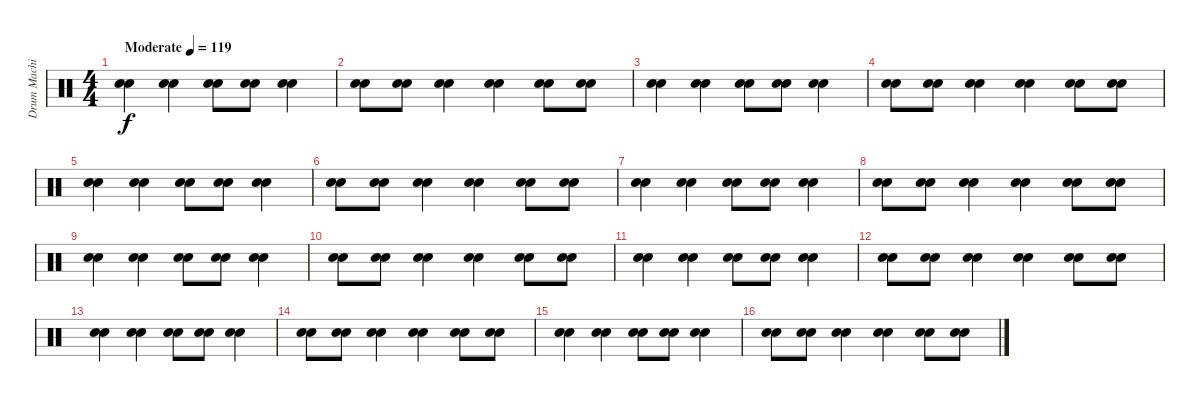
\track ("Drum Machine" "Drum Machi") {instrument percussion}
\staff {score}
\articulation defaults
\ts (4 4)
\tempo (119 "Moderate")
\clef neutral
\ks c
("Hand Clap (hit)" "Hand Clap (hit)").4{dy f} ("Hand Clap (hit)" "Hand Clap (hit)").4 ("Hand Clap (hit)" "Hand Clap (hit)").8 ("Hand Clap (hit)" "Hand Clap (hit)").8 ("Hand Clap (hit)" "Hand Clap (hit)").4 |
("Hand Clap (hit)" "Hand Clap (hit)").8 ("Hand Clap (hit)" "Hand Clap (hit)").8 ("Hand Clap (hit)" "Hand Clap (hit)").4 ("Hand Clap (hit)" "Hand Clap (hit)").4 ("Hand Clap (hit)" "Hand Clap (hit)").8 ("Hand Clap (hit)" "Hand Clap (hit)").8 |
("Hand Clap (hit)" "Hand Clap (hit)").4 ("Hand Clap (hit)" "Hand Clap (hit)").4 ("Hand Clap (hit)" "Hand Clap (hit)").8 ("Hand Clap (hit)" "Hand Clap (hit)").8 ("Hand Clap (hit)" "Hand Clap (hit)").4 |
("Hand Clap (hit)" "Hand Clap (hit)").8 ("Hand Clap (hit)" "Hand Clap (hit)").8 ("Hand Clap (hit)" "Hand Clap (hit)").4 ("Hand Clap (hit)" "Hand Clap (hit)").4 ("Hand Clap (hit)" "Hand Clap (hit)").8 ("Hand Clap (hit)" "Hand Clap (hit)").8 |
("Hand Clap (hit)" "Hand Clap (hit)").4 ("Hand Clap (hit)" "Hand Clap (hit)").4 ("Hand Clap (hit)" "Hand Clap (hit)").8 ("Hand Clap (hit)" "Hand Clap (hit)").8 ("Hand Clap (hit)" "Hand Clap (hit)").4 |
("Hand Clap (hit)" "Hand Clap (hit)").8 ("Hand Clap (hit)" "Hand Clap (hit)").8 ("Hand Clap (hit)" "Hand Clap (hit)").4 ("Hand Clap (hit)" "Hand Clap (hit)").4 ("Hand Clap (hit)" "Hand Clap (hit)").8 ("Hand Clap (hit)" "Hand Clap (hit)").8 |
("Hand Clap (hit)" "Hand Clap (hit)").4 ("Hand Clap (hit)" "Hand Clap (hit)").4 ("Hand Clap (hit)" "Hand Clap (hit)").8 ("Hand Clap (hit)" "Hand Clap (hit)").8 ("Hand Clap (hit)" "Hand Clap (hit)").4 |
("Hand Clap (hit)" "Hand Clap (hit)").8 ("Hand Clap (hit)" "Hand Clap (hit)").8 ("Hand Clap (hit)" "Hand Clap (hit)").4 ("Hand Clap (hit)" "Hand Clap (hit)").4 ("Hand Clap (hit)" "Hand Clap (hit)").8 ("Hand Clap (hit)" "Hand Clap (hit)").8 |
("Hand Clap (hit)" "Hand Clap (hit)").4 ("Hand Clap (hit)" "Hand Clap (hit)").4 ("Hand Clap (hit)" "Hand Clap (hit)").8 ("Hand Clap (hit)" "Hand Clap (hit)").8 ("Hand Clap (hit)" "Hand Clap (hit)").4 |
("Hand Clap (hit)" "Hand Clap (hit)").8 ("Hand Clap (hit)" "Hand Clap (hit)").8 ("Hand Clap (hit)" "Hand Clap (hit)").4 ("Hand Clap (hit)" "Hand Clap (hit)").4 ("Hand Clap (hit)" "Hand Clap (hit)").8 ("Hand Clap (hit)" "Hand Clap (hit)").8 |
("Hand Clap (hit)" "Hand Clap (hit)").4 ("Hand Clap (hit)" "Hand Clap (hit)").4 ("Hand Clap (hit)" "Hand Clap (hit)").8 ("Hand Clap (hit)" "Hand Clap (hit)").8 ("Hand Clap (hit)" "Hand Clap (hit)").4 |
("Hand Clap (hit)" "Hand Clap (hit)").8 ("Hand Clap (hit)" "Hand Clap (hit)").8 ("Hand Clap (hit)" "Hand Clap (hit)").4 ("Hand Clap (hit)" "Hand Clap (hit)").4 ("Hand Clap (hit)" "Hand Clap (hit)").8 ("Hand Clap (hit)" "Hand Clap (hit)").8 |
("Hand Clap (hit)" "Hand Clap (hit)").4 ("Hand Clap (hit)" "Hand Clap (hit)").4 ("Hand Clap (hit)" "Hand Clap (hit)").8 ("Hand Clap (hit)" "Hand Clap (hit)").8 ("Hand Clap (hit)" "Hand Clap (hit)").4 |
("Hand Clap (hit)" "Hand Clap (hit)").8 ("Hand Clap (hit)" "Hand Clap (hit)").8 ("Hand Clap (hit)" "Hand Clap (hit)").4 ("Hand Clap (hit)" "Hand Clap (hit)").4 ("Hand Clap (hit)" "Hand Clap (hit)").8 ("Hand Clap (hit)" "Hand Clap (hit)").8 |
("Hand Clap (hit)" "Hand Clap (hit)").4 ("Hand Clap (hit)" "Hand Clap (hit)").4 ("Hand Clap (hit)" "Hand Clap (hit)").8 ("Hand Clap (hit)" "Hand Clap (hit)").8 ("Hand Clap (hit)" "Hand Clap (hit)").4 |
("Hand Clap (hit)" "Hand Clap (hit)").8 ("Hand Clap (hit)" "Hand Clap (hit)").8 ("Hand Clap (hit)" "Hand Clap (hit)").4 ("Hand Clap (hit)" "Hand Clap (hit)").4 ("Hand Clap (hit)" "Hand Clap (hit)").8 ("Hand Clap (hit)" "Hand Clap (hit)").8
